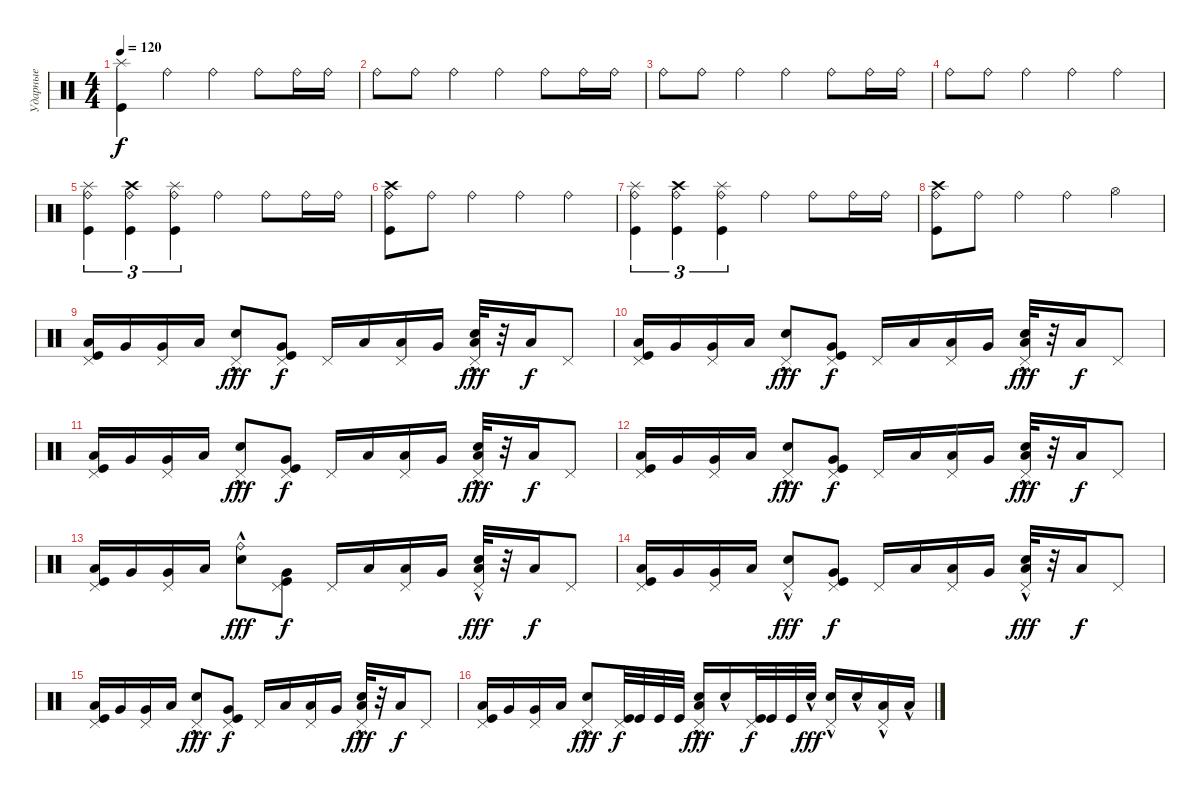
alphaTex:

\track ("Ударные" "Ударные") {instrument percussion}
\staff {score}
\articulation defaults
\ts (4 4)
\tempo 120
\clef neutral
\ks c
("Kick (hit)" "Splash (hit)").4{dy f} "Ride (bell)".4 "Ride (bell)".4 "Ride (bell)".8 "Ride (bell)".16 "Ride (bell)".16 |
"Ride (bell)".8 "Ride (bell)".8 "Ride (bell)".4 "Ride (bell)".4 "Ride (bell)".8 "Ride (bell)".16 "Ride (bell)".16 |
"Ride (bell)".8 "Ride (bell)".8 "Ride (bell)".4 "Ride (bell)".4 "Ride (bell)".8 "Ride (bell)".16 "Ride (bell)".16 |
"Ride (bell)".8 "Ride (bell)".8 "Ride (bell)".4 "Ride (bell)".4 "Ride (bell)".4 |
("Kick (hit)" "Splash (hit)" "Ride (bell)").4{tu (3 2)} ("Kick (hit)" "Crash high (hit)" "Ride (bell)").4{tu (3 2)} ("Kick (hit)" "Splash (hit)" "Ride (bell)").4{tu (3 2)} "Ride (bell)".4 "Ride (bell)".8 "Ride (bell)".16 "Ride (bell)".16 |
("Kick (hit)" "Ride (bell)" "Crash high (hit)").8 "Ride (bell)".8 "Ride (bell)".4 "Ride (bell)".4 "Ride (bell)".4 |
("Kick (hit)" "Splash (hit)" "Ride (bell)").4{tu (3 2)} ("Kick (hit)" "Crash high (hit)" "Ride (bell)").4{tu (3 2)} ("Kick (hit)" "Splash (hit)" "Ride (bell)").4{tu (3 2)} "Ride (bell)".4 "Ride (bell)".8 "Ride (bell)".16 "Ride (bell)".16 |
("Kick (hit)" "Ride (bell)" "Crash high (hit)").8 "Ride (bell)".8 "Ride (bell)".4 "Ride (bell)".4 "Hi-Hat (open)".4 |
("Kick (hit)" "Low Floor Tom (hit)" "Pedal Hi-Hat (hit)").16 "Very Low Tom (hit)".16 ("Very Low Tom (hit)" "Pedal Hi-Hat (hit)").16 "Low Floor Tom (hit)".16 ("Electric Snare (hit)"{hac} "Pedal Hi-Hat (hit)").8{dy fff} ("Kick (hit)" "Very Low Tom (hit)" "Pedal Hi-Hat (hit)").8{dy f} "Pedal Hi-Hat (hit)".16 "Low Floor Tom (hit)".16 ("Low Floor Tom (hit)" "Pedal Hi-Hat (hit)").16 "Very Low Tom (hit)".16 ("Electric Snare (hit)"{hac} "Low Floor Tom (hit)" "Pedal Hi-Hat (hit)").32{dy fff} r.32 "Low Floor Tom (hit)".16{dy f} "Pedal Hi-Hat (hit)".8 |
("Kick (hit)" "Low Floor Tom (hit)" "Pedal Hi-Hat (hit)").16 "Very Low Tom (hit)".16 ("Very Low Tom (hit)" "Pedal Hi-Hat (hit)").16 "Low Floor Tom (hit)".16 ("Electric Snare (hit)"{hac} "Pedal Hi-Hat (hit)").8{dy fff} ("Kick (hit)" "Very Low Tom (hit)" "Pedal Hi-Hat (hit)").8{dy f} "Pedal Hi-Hat (hit)".16 "Low Floor Tom (hit)".16 ("Low Floor Tom (hit)" "Pedal Hi-Hat (hit)").16 "Very Low Tom (hit)".16 ("Electric Snare (hit)"{hac} "Low Floor Tom (hit)" "Pedal Hi-Hat (hit)").32{dy fff} r.32 "Low Floor Tom (hit)".16{dy f} "Pedal Hi-Hat (hit)".8 |
("Kick (hit)" "Low Floor Tom (hit)" "Pedal Hi-Hat (hit)").16 "Very Low Tom (hit)".16 ("Very Low Tom (hit)" "Pedal Hi-Hat (hit)").16 "Low Floor Tom (hit)".16 ("Electric Snare (hit)"{hac} "Pedal Hi-Hat (hit)").8{dy fff} ("Kick (hit)" "Very Low Tom (hit)" "Pedal Hi-Hat (hit)").8{dy f} "Pedal Hi-Hat (hit)".16 "Low Floor Tom (hit)".16 ("Low Floor Tom (hit)" "Pedal Hi-Hat (hit)").16 "Very Low Tom (hit)".16 ("Electric Snare (hit)"{hac} "Low Floor Tom (hit)" "Pedal Hi-Hat (hit)").32{dy fff} r.32 "Low Floor Tom (hit)".16{dy f} "Pedal Hi-Hat (hit)".8 |
("Kick (hit)" "Low Floor Tom (hit)" "Pedal Hi-Hat (hit)").16 "Very Low Tom (hit)".16 ("Very Low Tom (hit)" "Pedal Hi-Hat (hit)").16 "Low Floor Tom (hit)".16 ("Electric Snare (hit)"{hac} "Pedal Hi-Hat (hit)").8{dy fff} ("Kick (hit)" "Very Low Tom (hit)" "Pedal Hi-Hat (hit)").8{dy f} "Pedal Hi-Hat (hit)".16 "Low Floor Tom (hit)".16 ("Low Floor Tom (hit)" "Pedal Hi-Hat (hit)").16 "Very Low Tom (hit)".16 ("Electric Snare (hit)"{hac} "Low Floor Tom (hit)" "Pedal Hi-Hat (hit)").32{dy fff} r.32 "Low Floor Tom (hit)".16{dy f} "Pedal Hi-Hat (hit)".8 |
("Kick (hit)" "Low Floor Tom (hit)" "Pedal Hi-Hat (hit)").16 "Very Low Tom (hit)".16 ("Very Low Tom (hit)" "Pedal Hi-Hat (hit)").16 "Low Floor Tom (hit)".16 ("Electric Snare (hit)"{hac} "Ride (bell)"{hac}).8{dy fff} ("Kick (hit)" "Very Low Tom (hit)" "Pedal Hi-Hat (hit)").8{dy f} "Pedal Hi-Hat (hit)".16 "Low Floor Tom (hit)".16 ("Low Floor Tom (hit)" "Pedal Hi-Hat (hit)").16 "Very Low Tom (hit)".16 ("Electric Snare (hit)"{hac} "Low Floor Tom (hit)" "Pedal Hi-Hat (hit)").32{dy fff} r.32 "Low Floor Tom (hit)".16{dy f} "Pedal Hi-Hat (hit)".8 |
("Kick (hit)" "Low Floor Tom (hit)" "Pedal Hi-Hat (hit)").16 "Very Low Tom (hit)".16 ("Very Low Tom (hit)" "Pedal Hi-Hat (hit)").16 "Low Floor Tom (hit)".16 ("Electric Snare (hit)"{hac} "Pedal Hi-Hat (hit)").8{dy fff} ("Kick (hit)" "Very Low Tom (hit)" "Pedal Hi-Hat (hit)").8{dy f} "Pedal Hi-Hat (hit)".16 "Low Floor Tom (hit)".16 ("Low Floor Tom (hit)" "Pedal Hi-Hat (hit)").16 "Very Low Tom (hit)".16 ("Electric Snare (hit)"{hac} "Low Floor Tom (hit)" "Pedal Hi-Hat (hit)").32{dy fff} r.32 "Low Floor Tom (hit)".16{dy f} "Pedal Hi-Hat (hit)".8 |
("Kick (hit)" "Low Floor Tom (hit)" "Pedal Hi-Hat (hit)").16 "Very Low Tom (hit)".16 ("Very Low Tom (hit)" "Pedal Hi-Hat (hit)").16 "Low Floor Tom (hit)".16 ("Electric Snare (hit)"{hac} "Pedal Hi-Hat (hit)").8{dy fff} ("Kick (hit)" "Very Low Tom (hit)" "Pedal Hi-Hat (hit)").8{dy f} "Pedal Hi-Hat (hit)".16 "Low Floor Tom (hit)".16 ("Low Floor Tom (hit)" "Pedal Hi-Hat (hit)").16 "Very Low Tom (hit)".16 ("Electric Snare (hit)"{hac} "Low Floor Tom (hit)" "Pedal Hi-Hat (hit)").32{dy fff} r.32 "Low Floor Tom (hit)".16{dy f} "Pedal Hi-Hat (hit)".8 |
("Kick (hit)" "Low Floor Tom (hit)" "Pedal Hi-Hat (hit)").16 "Very Low Tom (hit)".16 ("Very Low Tom (hit)" "Pedal Hi-Hat (hit)").16 "Low Floor Tom (hit)".16 ("Electric Snare (hit)"{hac} "Pedal Hi-Hat (hit)").8{dy fff} ("Kick (hit)" "Pedal Hi-Hat (hit)").32{dy f} "Kick (hit)".32 "Kick (hit)".32 "Kick (hit)".32 ("Electric Snare (hit)"{hac} "Low Floor Tom (hit)" "Pedal Hi-Hat (hit)").16{dy fff} "Electric Snare (hit)"{hac}.16 ("Kick (hit)" "Pedal Hi-Hat (hit)").32{dy f} "Kick (hit)".32 "Kick (hit)".32 "Electric Snare (hit)"{hac}.32{dy fff} ("Electric Snare (hit)"{hac} "Pedal Hi-Hat (hit)").16 "Electric Snare (hit)"{hac}.16 ("Low Tom (hit)"{hac} "Pedal Hi-Hat (hit)").16 "Low Tom (hit)"{hac}.16
